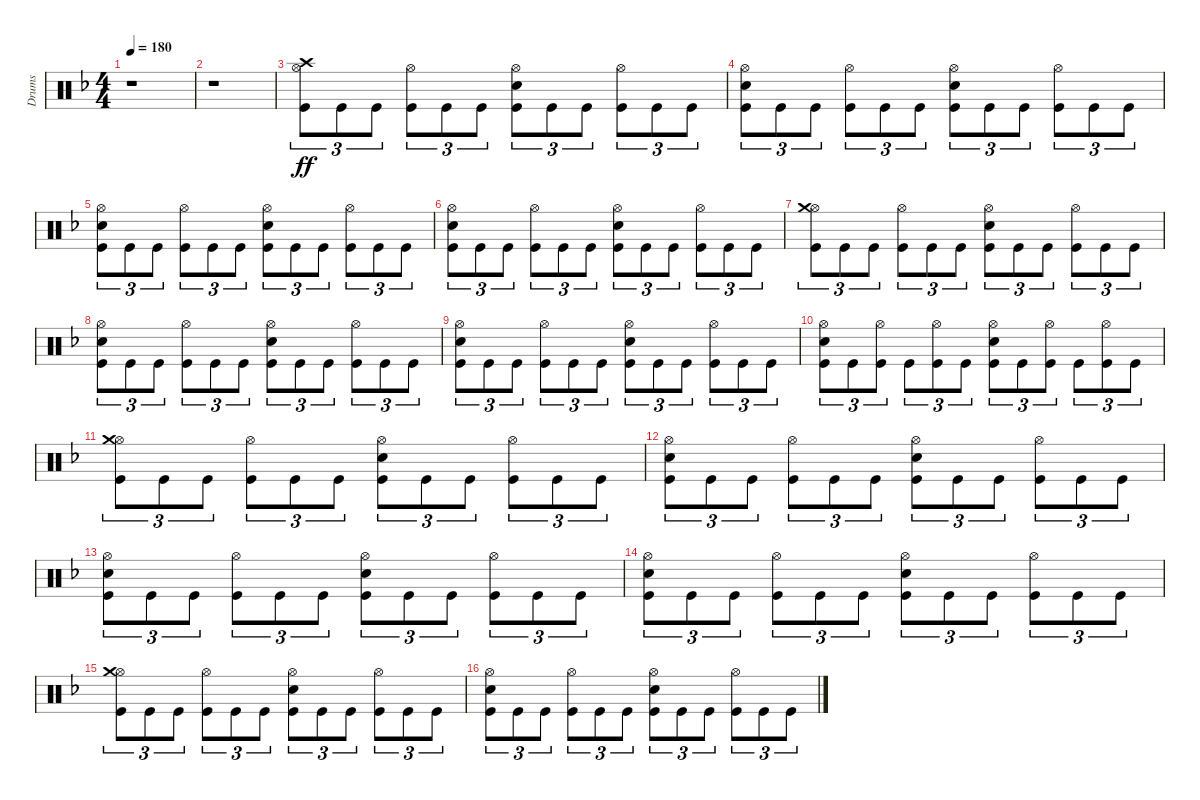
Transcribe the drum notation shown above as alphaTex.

\track ("Drums" "Drums") {instrument percussion}
\staff {score}
\articulation defaults
\ts (4 4)
\tempo 180
\clef neutral
\ks dminor
r.1{dy ff} |
r.1 |
("Hi-Hat (open)" "Crash high (hit)" "Kick (hit)").8{tu (3 2)} "Kick (hit)".8{tu (3 2)} "Kick (hit)".8{tu (3 2)} ("Hi-Hat (open)" "Kick (hit)").8{tu (3 2)} "Kick (hit)".8{tu (3 2)} "Kick (hit)".8{tu (3 2)} ("Hi-Hat (open)" "Snare (hit) 2" "Kick (hit)").8{tu (3 2)} "Kick (hit)".8{tu (3 2)} "Kick (hit)".8{tu (3 2)} ("Hi-Hat (open)" "Kick (hit)").8{tu (3 2)} "Kick (hit)".8{tu (3 2)} "Kick (hit)".8{tu (3 2)} |
("Hi-Hat (open)" "Snare (hit) 2" "Kick (hit)").8{tu (3 2)} "Kick (hit)".8{tu (3 2)} "Kick (hit)".8{tu (3 2)} ("Hi-Hat (open)" "Kick (hit)").8{tu (3 2)} "Kick (hit)".8{tu (3 2)} "Kick (hit)".8{tu (3 2)} ("Hi-Hat (open)" "Snare (hit) 2" "Kick (hit)").8{tu (3 2)} "Kick (hit)".8{tu (3 2)} "Kick (hit)".8{tu (3 2)} ("Hi-Hat (open)" "Kick (hit)").8{tu (3 2)} "Kick (hit)".8{tu (3 2)} "Kick (hit)".8{tu (3 2)} |
("Hi-Hat (open)" "Snare (hit) 2" "Kick (hit)").8{tu (3 2)} "Kick (hit)".8{tu (3 2)} "Kick (hit)".8{tu (3 2)} ("Hi-Hat (open)" "Kick (hit)").8{tu (3 2)} "Kick (hit)".8{tu (3 2)} "Kick (hit)".8{tu (3 2)} ("Hi-Hat (open)" "Snare (hit) 2" "Kick (hit)").8{tu (3 2)} "Kick (hit)".8{tu (3 2)} "Kick (hit)".8{tu (3 2)} ("Hi-Hat (open)" "Kick (hit)").8{tu (3 2)} "Kick (hit)".8{tu (3 2)} "Kick (hit)".8{tu (3 2)} |
("Hi-Hat (open)" "Snare (hit) 2" "Kick (hit)").8{tu (3 2)} "Kick (hit)".8{tu (3 2)} "Kick (hit)".8{tu (3 2)} ("Hi-Hat (open)" "Kick (hit)").8{tu (3 2)} "Kick (hit)".8{tu (3 2)} "Kick (hit)".8{tu (3 2)} ("Hi-Hat (open)" "Snare (hit) 2" "Kick (hit)").8{tu (3 2)} "Kick (hit)".8{tu (3 2)} "Kick (hit)".8{tu (3 2)} ("Hi-Hat (open)" "Kick (hit)").8{tu (3 2)} "Kick (hit)".8{tu (3 2)} "Kick (hit)".8{tu (3 2)} |
("Hi-Hat (open)" "Crash medium (hit)" "Kick (hit)").8{tu (3 2)} "Kick (hit)".8{tu (3 2)} "Kick (hit)".8{tu (3 2)} ("Hi-Hat (open)" "Kick (hit)").8{tu (3 2)} "Kick (hit)".8{tu (3 2)} "Kick (hit)".8{tu (3 2)} ("Hi-Hat (open)" "Snare (hit) 2" "Kick (hit)").8{tu (3 2)} "Kick (hit)".8{tu (3 2)} "Kick (hit)".8{tu (3 2)} ("Hi-Hat (open)" "Kick (hit)").8{tu (3 2)} "Kick (hit)".8{tu (3 2)} "Kick (hit)".8{tu (3 2)} |
("Hi-Hat (open)" "Snare (hit) 2" "Kick (hit)").8{tu (3 2)} "Kick (hit)".8{tu (3 2)} "Kick (hit)".8{tu (3 2)} ("Hi-Hat (open)" "Kick (hit)").8{tu (3 2)} "Kick (hit)".8{tu (3 2)} "Kick (hit)".8{tu (3 2)} ("Hi-Hat (open)" "Snare (hit) 2" "Kick (hit)").8{tu (3 2)} "Kick (hit)".8{tu (3 2)} "Kick (hit)".8{tu (3 2)} ("Hi-Hat (open)" "Kick (hit)").8{tu (3 2)} "Kick (hit)".8{tu (3 2)} "Kick (hit)".8{tu (3 2)} |
("Hi-Hat (open)" "Snare (hit) 2" "Kick (hit)").8{tu (3 2)} "Kick (hit)".8{tu (3 2)} "Kick (hit)".8{tu (3 2)} ("Hi-Hat (open)" "Kick (hit)").8{tu (3 2)} "Kick (hit)".8{tu (3 2)} "Kick (hit)".8{tu (3 2)} ("Hi-Hat (open)" "Snare (hit) 2" "Kick (hit)").8{tu (3 2)} "Kick (hit)".8{tu (3 2)} "Kick (hit)".8{tu (3 2)} ("Hi-Hat (open)" "Kick (hit)").8{tu (3 2)} "Kick (hit)".8{tu (3 2)} "Kick (hit)".8{tu (3 2)} |
("Hi-Hat (open)" "Snare (hit) 2" "Kick (hit)").8{tu (3 2)} "Kick (hit)".8{tu (3 2)} ("Hi-Hat (open)" "Kick (hit)").8{tu (3 2)} "Kick (hit)".8{tu (3 2)} ("Hi-Hat (open)" "Kick (hit)").8{tu (3 2)} "Kick (hit)".8{tu (3 2)} ("Hi-Hat (open)" "Snare (hit) 2" "Kick (hit)").8{tu (3 2)} "Kick (hit)".8{tu (3 2)} ("Hi-Hat (open)" "Kick (hit)").8{tu (3 2)} "Kick (hit)".8{tu (3 2)} ("Hi-Hat (open)" "Kick (hit)").8{tu (3 2)} "Kick (hit)".8{tu (3 2)} |
("Hi-Hat (open)" "Crash medium (hit)" "Kick (hit)").8{tu (3 2)} "Kick (hit)".8{tu (3 2)} "Kick (hit)".8{tu (3 2)} ("Hi-Hat (open)" "Kick (hit)").8{tu (3 2)} "Kick (hit)".8{tu (3 2)} "Kick (hit)".8{tu (3 2)} ("Hi-Hat (open)" "Snare (hit) 2" "Kick (hit)").8{tu (3 2)} "Kick (hit)".8{tu (3 2)} "Kick (hit)".8{tu (3 2)} ("Hi-Hat (open)" "Kick (hit)").8{tu (3 2)} "Kick (hit)".8{tu (3 2)} "Kick (hit)".8{tu (3 2)} |
("Hi-Hat (open)" "Snare (hit) 2" "Kick (hit)").8{tu (3 2)} "Kick (hit)".8{tu (3 2)} "Kick (hit)".8{tu (3 2)} ("Hi-Hat (open)" "Kick (hit)").8{tu (3 2)} "Kick (hit)".8{tu (3 2)} "Kick (hit)".8{tu (3 2)} ("Hi-Hat (open)" "Snare (hit) 2" "Kick (hit)").8{tu (3 2)} "Kick (hit)".8{tu (3 2)} "Kick (hit)".8{tu (3 2)} ("Hi-Hat (open)" "Kick (hit)").8{tu (3 2)} "Kick (hit)".8{tu (3 2)} "Kick (hit)".8{tu (3 2)} |
("Hi-Hat (open)" "Snare (hit) 2" "Kick (hit)").8{tu (3 2)} "Kick (hit)".8{tu (3 2)} "Kick (hit)".8{tu (3 2)} ("Hi-Hat (open)" "Kick (hit)").8{tu (3 2)} "Kick (hit)".8{tu (3 2)} "Kick (hit)".8{tu (3 2)} ("Hi-Hat (open)" "Snare (hit) 2" "Kick (hit)").8{tu (3 2)} "Kick (hit)".8{tu (3 2)} "Kick (hit)".8{tu (3 2)} ("Hi-Hat (open)" "Kick (hit)").8{tu (3 2)} "Kick (hit)".8{tu (3 2)} "Kick (hit)".8{tu (3 2)} |
("Hi-Hat (open)" "Snare (hit) 2" "Kick (hit)").8{tu (3 2)} "Kick (hit)".8{tu (3 2)} "Kick (hit)".8{tu (3 2)} ("Hi-Hat (open)" "Kick (hit)").8{tu (3 2)} "Kick (hit)".8{tu (3 2)} "Kick (hit)".8{tu (3 2)} ("Hi-Hat (open)" "Snare (hit) 2" "Kick (hit)").8{tu (3 2)} "Kick (hit)".8{tu (3 2)} "Kick (hit)".8{tu (3 2)} ("Hi-Hat (open)" "Kick (hit)").8{tu (3 2)} "Kick (hit)".8{tu (3 2)} "Kick (hit)".8{tu (3 2)} |
("Hi-Hat (open)" "Crash medium (hit)" "Kick (hit)").8{tu (3 2)} "Kick (hit)".8{tu (3 2)} "Kick (hit)".8{tu (3 2)} ("Hi-Hat (open)" "Kick (hit)").8{tu (3 2)} "Kick (hit)".8{tu (3 2)} "Kick (hit)".8{tu (3 2)} ("Hi-Hat (open)" "Snare (hit) 2" "Kick (hit)").8{tu (3 2)} "Kick (hit)".8{tu (3 2)} "Kick (hit)".8{tu (3 2)} ("Hi-Hat (open)" "Kick (hit)").8{tu (3 2)} "Kick (hit)".8{tu (3 2)} "Kick (hit)".8{tu (3 2)} |
("Hi-Hat (open)" "Snare (hit) 2" "Kick (hit)").8{tu (3 2)} "Kick (hit)".8{tu (3 2)} "Kick (hit)".8{tu (3 2)} ("Hi-Hat (open)" "Kick (hit)").8{tu (3 2)} "Kick (hit)".8{tu (3 2)} "Kick (hit)".8{tu (3 2)} ("Hi-Hat (open)" "Snare (hit) 2" "Kick (hit)").8{tu (3 2)} "Kick (hit)".8{tu (3 2)} "Kick (hit)".8{tu (3 2)} ("Hi-Hat (open)" "Kick (hit)").8{tu (3 2)} "Kick (hit)".8{tu (3 2)} "Kick (hit)".8{tu (3 2)}
